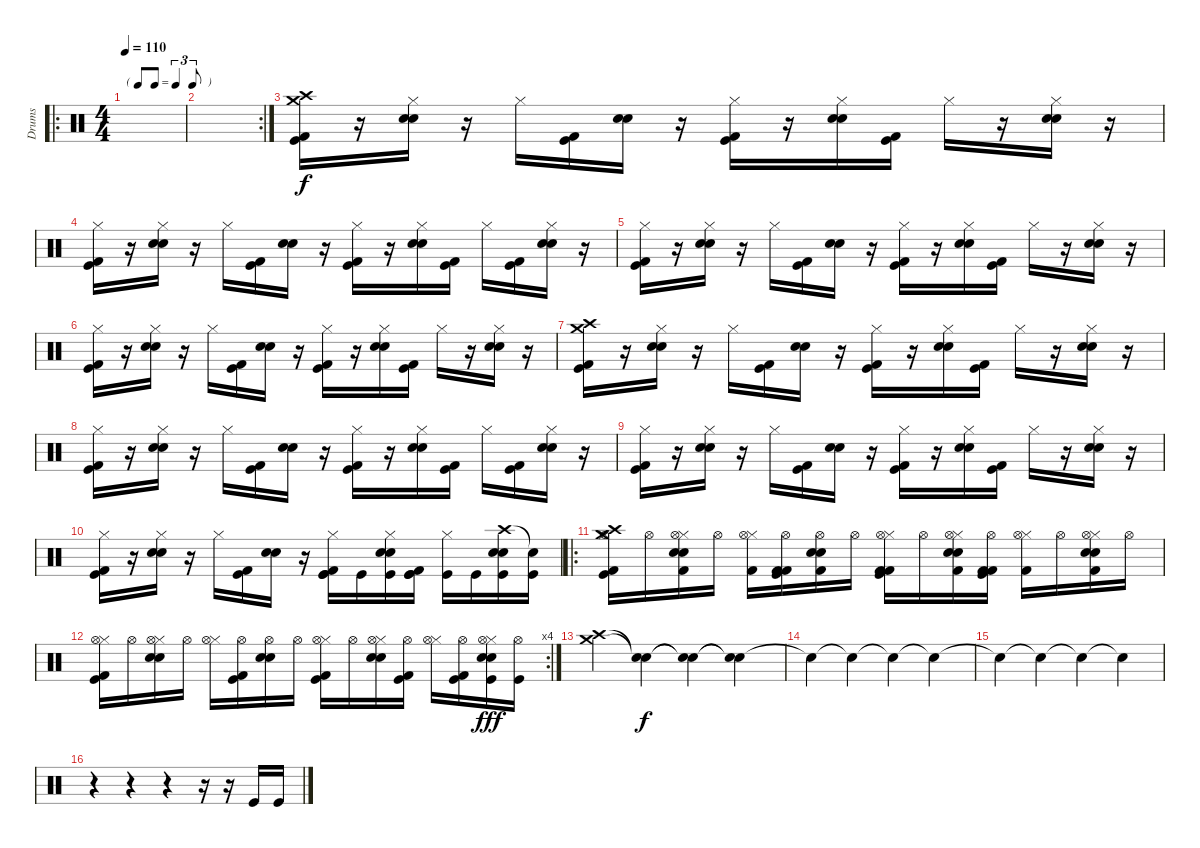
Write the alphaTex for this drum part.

\track ("Drums" "Drums") {instrument percussion}
\staff {score}
\articulation defaults
\ro
\ts (4 4)
\tf triplet8th
\tempo 110
\clef neutral
\ks c
|
\rc 2
|
("Crash high (hit)" "Crash medium (hit)" "Kick (hit) 2" "Kick (hit)").16 r.16 ("Hi-Hat (closed)" "Electric Snare (hit)" "Snare (hit) 2").16 r.16 "Hi-Hat (closed)".16 ("Kick (hit) 2" "Kick (hit)").16 ("Electric Snare (hit)" "Snare (hit) 2").16 r.16 ("Hi-Hat (closed)" "Kick (hit) 2" "Kick (hit)").16 r.16 ("Hi-Hat (closed)" "Electric Snare (hit)" "Snare (hit) 2").16 ("Kick (hit) 2" "Kick (hit)").16 "Hi-Hat (closed)".16 r.16 ("Hi-Hat (closed)" "Electric Snare (hit)" "Snare (hit) 2").16 r.16 |
("Hi-Hat (closed)" "Kick (hit) 2" "Kick (hit)").16 r.16 ("Hi-Hat (closed)" "Electric Snare (hit)" "Snare (hit) 2").16 r.16 "Hi-Hat (closed)".16 ("Kick (hit) 2" "Kick (hit)").16 ("Electric Snare (hit)" "Snare (hit) 2").16 r.16 ("Hi-Hat (closed)" "Kick (hit) 2" "Kick (hit)").16 r.16 ("Hi-Hat (closed)" "Electric Snare (hit)" "Snare (hit) 2").16 ("Kick (hit) 2" "Kick (hit)").16 "Hi-Hat (closed)".16 ("Kick (hit) 2" "Kick (hit)").16 ("Hi-Hat (closed)" "Electric Snare (hit)" "Snare (hit) 2").16 r.16 |
("Hi-Hat (closed)" "Kick (hit) 2" "Kick (hit)").16 r.16 ("Hi-Hat (closed)" "Electric Snare (hit)" "Snare (hit) 2").16 r.16 "Hi-Hat (closed)".16 ("Kick (hit) 2" "Kick (hit)").16 ("Electric Snare (hit)" "Snare (hit) 2").16 r.16 ("Hi-Hat (closed)" "Kick (hit) 2" "Kick (hit)").16 r.16 ("Hi-Hat (closed)" "Electric Snare (hit)" "Snare (hit) 2").16 ("Kick (hit) 2" "Kick (hit)").16 "Hi-Hat (closed)".16 r.16 ("Hi-Hat (closed)" "Electric Snare (hit)" "Snare (hit) 2").16 r.16 |
("Hi-Hat (closed)" "Kick (hit) 2" "Kick (hit)").16 r.16 ("Hi-Hat (closed)" "Electric Snare (hit)" "Snare (hit) 2").16 r.16 "Hi-Hat (closed)".16 ("Kick (hit) 2" "Kick (hit)").16 ("Electric Snare (hit)" "Snare (hit) 2").16 r.16 ("Hi-Hat (closed)" "Kick (hit) 2" "Kick (hit)").16 r.16 ("Hi-Hat (closed)" "Electric Snare (hit)" "Snare (hit) 2").16 ("Kick (hit) 2" "Kick (hit)").16 "Hi-Hat (closed)".16 r.16 ("Hi-Hat (closed)" "Electric Snare (hit)" "Snare (hit) 2").16 r.16 |
("Crash medium (hit)" "Crash high (hit)" "Kick (hit) 2" "Kick (hit)").16 r.16 ("Hi-Hat (closed)" "Electric Snare (hit)" "Snare (hit) 2").16 r.16 "Hi-Hat (closed)".16 ("Kick (hit) 2" "Kick (hit)").16 ("Electric Snare (hit)" "Snare (hit) 2").16 r.16 ("Hi-Hat (closed)" "Kick (hit) 2" "Kick (hit)").16 r.16 ("Hi-Hat (closed)" "Electric Snare (hit)" "Snare (hit) 2").16 ("Kick (hit) 2" "Kick (hit)").16 "Hi-Hat (closed)".16 r.16 ("Hi-Hat (closed)" "Electric Snare (hit)" "Snare (hit) 2").16 r.16 |
("Hi-Hat (closed)" "Kick (hit) 2" "Kick (hit)").16 r.16 ("Hi-Hat (closed)" "Electric Snare (hit)" "Snare (hit) 2").16 r.16 "Hi-Hat (closed)".16 ("Kick (hit) 2" "Kick (hit)").16 ("Electric Snare (hit)" "Snare (hit) 2").16 r.16 ("Hi-Hat (closed)" "Kick (hit) 2" "Kick (hit)").16 r.16 ("Hi-Hat (closed)" "Electric Snare (hit)" "Snare (hit) 2").16 ("Kick (hit) 2" "Kick (hit)").16 "Hi-Hat (closed)".16 ("Kick (hit) 2" "Kick (hit)").16 ("Hi-Hat (closed)" "Electric Snare (hit)" "Snare (hit) 2").16 r.16 |
("Hi-Hat (closed)" "Kick (hit) 2" "Kick (hit)").16 r.16 ("Hi-Hat (closed)" "Electric Snare (hit)" "Snare (hit) 2").16 r.16 "Hi-Hat (closed)".16 ("Kick (hit) 2" "Kick (hit)").16 ("Electric Snare (hit)" "Snare (hit) 2").16 r.16 ("Hi-Hat (closed)" "Kick (hit) 2" "Kick (hit)").16 r.16 ("Hi-Hat (closed)" "Electric Snare (hit)" "Snare (hit) 2").16 ("Kick (hit) 2" "Kick (hit)").16 "Hi-Hat (closed)".16 r.16 ("Hi-Hat (closed)" "Electric Snare (hit)" "Snare (hit) 2").16 r.16 |
("Hi-Hat (closed)" "Kick (hit) 2" "Kick (hit)").16 r.16 ("Hi-Hat (closed)" "Electric Snare (hit)" "Snare (hit) 2").16 r.16 "Hi-Hat (closed)".16 ("Kick (hit) 2" "Kick (hit)").16 ("Electric Snare (hit)" "Snare (hit) 2").16 r.16 ("Hi-Hat (closed)" "Kick (hit) 2" "Kick (hit)" "Kick (hit)").16 "Kick (hit)".16 ("Hi-Hat (closed)" "Electric Snare (hit)" "Snare (hit) 2" "Kick (hit)").16 ("Kick (hit) 2" "Kick (hit)" "Kick (hit)").16 ("Hi-Hat (closed)" "Kick (hit)").16 "Kick (hit)".16 ("Crash high (hit)" "Electric Snare (hit)" "Snare (hit) 2" "Kick (hit)").16 ("Snare (hit)"{t} "Kick (hit)").16 |
\ro
("Crash medium (hit)" "Crash high (hit)" "Kick (hit) 2" "Kick (hit)" "Hi-Hat (closed)" "Hi-Hat (open)").16 "Hi-Hat (open)".16 ("Hi-Hat (closed)" "Electric Snare (hit)" "Snare (hit) 2" "Kick (hit) 2" "Hi-Hat (open)").16 "Hi-Hat (open)".16 ("Hi-Hat (closed)" "Kick (hit) 2" "Hi-Hat (open)").16 ("Kick (hit) 2" "Kick (hit)" "Kick (hit) 2" "Hi-Hat (open)").16 ("Electric Snare (hit)" "Snare (hit) 2" "Kick (hit) 2" "Hi-Hat (open)").16 "Hi-Hat (open)".16 ("Hi-Hat (closed)" "Kick (hit) 2" "Kick (hit)" "Kick (hit) 2" "Hi-Hat (open)").16 "Hi-Hat (open)".16 ("Hi-Hat (closed)" "Electric Snare (hit)" "Snare (hit) 2" "Kick (hit) 2" "Hi-Hat (open)").16 ("Kick (hit) 2" "Kick (hit)" "Kick (hit) 2" "Hi-Hat (open)").16 ("Hi-Hat (closed)" "Kick (hit) 2" "Hi-Hat (open)").16 "Hi-Hat (open)".16 ("Hi-Hat (closed)" "Electric Snare (hit)" "Snare (hit) 2" "Kick (hit) 2" "Hi-Hat (open)").16 "Hi-Hat (open)".16 |
\rc 4
("Hi-Hat (closed)" "Kick (hit) 2" "Kick (hit)" "Hi-Hat (open)").16 "Hi-Hat (open)".16 ("Hi-Hat (closed)" "Electric Snare (hit)" "Snare (hit) 2" "Hi-Hat (open)").16 "Hi-Hat (open)".16 ("Hi-Hat (closed)" "Hi-Hat (open)").16 ("Kick (hit) 2" "Kick (hit)" "Hi-Hat (open)").16 ("Electric Snare (hit)" "Snare (hit) 2" "Hi-Hat (open)").16 "Hi-Hat (open)".16 ("Hi-Hat (closed)" "Kick (hit) 2" "Kick (hit)" "Hi-Hat (open)").16 "Hi-Hat (open)".16 ("Hi-Hat (closed)" "Electric Snare (hit)" "Snare (hit) 2" "Hi-Hat (open)").16 ("Kick (hit) 2" "Kick (hit)" "Hi-Hat (open)").16 ("Hi-Hat (closed)" "Hi-Hat (open)").16 ("Kick (hit) 2" "Kick (hit)" "Hi-Hat (open)").16 ("Hi-Hat (closed)" "Electric Snare (hit)" "Snare (hit) 2" "Kick (hit)" "Hi-Hat (open)").16{dy fff} ("Kick (hit)" "Hi-Hat (open)").16 |
("Crash high (hit)" "Crash medium (hit)").4 ("Snare (hit)"{t} "Snare (hit)"{t}).4{dy f} ("Snare (hit)"{t} "Snare (hit)"{t}).4 ("Snare (hit)"{t} "Snare (hit)"{t}).4 |
"Snare (hit)"{t}.4 "Snare (hit)"{t}.4 "Snare (hit)"{t}.4 "Snare (hit)"{t}.4 |
"Snare (hit)"{t}.4 "Snare (hit)"{t}.4 "Snare (hit)"{t}.4 "Snare (hit)"{t}.4 |
r.4 r.4 r.4 r.16 r.16 "Kick (hit)".16 "Kick (hit)".16
